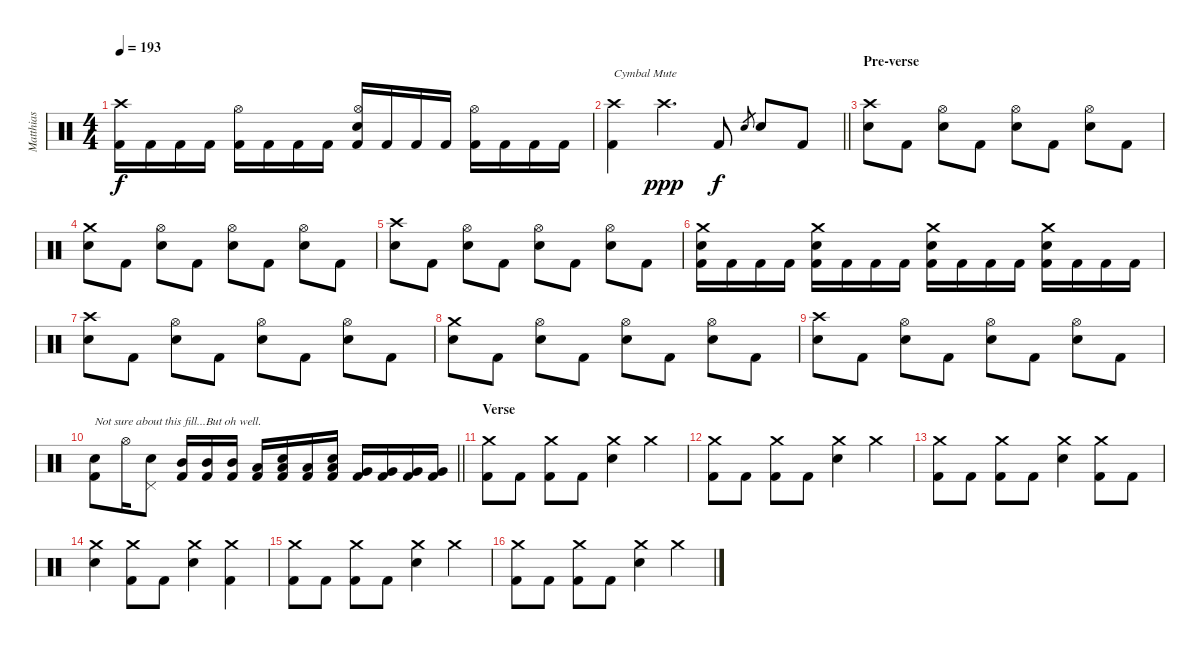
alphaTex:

\track ("Matthias" "Matthias") {instrument percussion}
\staff {score}
\articulation defaults
\ts (4 4)
\tempo 193
\clef neutral
\ks c
("Crash high (hit)" "Kick (hit) 2").16{dy f} "Kick (hit) 2".16 "Kick (hit) 2".16 "Kick (hit) 2".16 ("Hi-Hat (open)" "Kick (hit) 2").16 "Kick (hit) 2".16 "Kick (hit) 2".16 "Kick (hit) 2".16 ("Hi-Hat (open)" "Electric Snare (hit)" "Kick (hit) 2").16 "Kick (hit) 2".16 "Kick (hit) 2".16 "Kick (hit) 2".16 ("Hi-Hat (open)" "Kick (hit) 2").16 "Kick (hit) 2".16 "Kick (hit) 2".16 "Kick (hit) 2".16 |
\barLineRight lightlight
("Crash high (hit)" "Kick (hit) 2").4{txt "Cymbal Mute"} "Crash high (hit)".4{d dy ppp} "Kick (hit) 2".8{dy f} "Electric Snare (hit)".8{gr} "Electric Snare (hit)".8 "Kick (hit) 2".8 |
\section ("" "Pre-verse")
("Crash high (hit)" "Electric Snare (hit)").8 "Kick (hit) 2".8 ("Hi-Hat (open)" "Electric Snare (hit)").8 "Kick (hit) 2".8 ("Hi-Hat (open)" "Electric Snare (hit)").8 "Kick (hit) 2".8 ("Hi-Hat (open)" "Electric Snare (hit)").8 "Kick (hit) 2".8 |
("Crash medium (hit)" "Electric Snare (hit)").8 "Kick (hit) 2".8 ("Hi-Hat (open)" "Electric Snare (hit)").8 "Kick (hit) 2".8 ("Hi-Hat (open)" "Electric Snare (hit)").8 "Kick (hit) 2".8 ("Hi-Hat (open)" "Electric Snare (hit)").8 "Kick (hit) 2".8 |
("Crash high (hit)" "Electric Snare (hit)").8 "Kick (hit) 2".8 ("Hi-Hat (open)" "Electric Snare (hit)").8 "Kick (hit) 2".8 ("Hi-Hat (open)" "Electric Snare (hit)").8 "Kick (hit) 2".8 ("Hi-Hat (open)" "Electric Snare (hit)").8 "Kick (hit) 2".8 |
("Crash medium (hit)" "Electric Snare (hit)" "Kick (hit) 2").16 "Kick (hit) 2".16 "Kick (hit) 2".16 "Kick (hit) 2".16 ("Crash medium (hit)" "Electric Snare (hit)" "Kick (hit) 2").16 "Kick (hit) 2".16 "Kick (hit) 2".16 "Kick (hit) 2".16 ("Crash medium (hit)" "Electric Snare (hit)" "Kick (hit) 2").16 "Kick (hit) 2".16 "Kick (hit) 2".16 "Kick (hit) 2".16 ("Crash medium (hit)" "Electric Snare (hit)" "Kick (hit) 2").16 "Kick (hit) 2".16 "Kick (hit) 2".16 "Kick (hit) 2".16 |
("Crash high (hit)" "Electric Snare (hit)").8 "Kick (hit) 2".8 ("Hi-Hat (open)" "Electric Snare (hit)").8 "Kick (hit) 2".8 ("Hi-Hat (open)" "Electric Snare (hit)").8 "Kick (hit) 2".8 ("Hi-Hat (open)" "Electric Snare (hit)").8 "Kick (hit) 2".8 |
("Crash medium (hit)" "Electric Snare (hit)").8 "Kick (hit) 2".8 ("Hi-Hat (open)" "Electric Snare (hit)").8 "Kick (hit) 2".8 ("Hi-Hat (open)" "Electric Snare (hit)").8 "Kick (hit) 2".8 ("Hi-Hat (open)" "Electric Snare (hit)").8 "Kick (hit) 2".8 |
("Crash high (hit)" "Electric Snare (hit)").8 "Kick (hit) 2".8 ("Hi-Hat (open)" "Electric Snare (hit)").8 "Kick (hit) 2".8 ("Hi-Hat (open)" "Electric Snare (hit)").8 "Kick (hit) 2".8 ("Hi-Hat (open)" "Electric Snare (hit)").8 "Kick (hit) 2".8 |
\barLineRight lightlight
("Electric Snare (hit)" "Kick (hit) 2").8{txt "Not sure about this fill...But oh well."} "Hi-Hat (open)".16 ("Pedal Hi-Hat (hit)" "Electric Snare (hit)").8 ("Mid Tom (hit)" "Kick (hit) 2").16 ("Mid Tom (hit)" "Kick (hit) 2").16 ("Mid Tom (hit)" "Kick (hit) 2").16 ("Low Tom (hit)" "Kick (hit) 2").16 ("Low Tom (hit)" "Electric Snare (hit)" "Kick (hit) 2").16 ("Low Tom (hit)" "Kick (hit) 2").16 ("Low Tom (hit)" "Electric Snare (hit)" "Kick (hit) 2").16 ("Very Low Tom (hit)" "Kick (hit) 2").16 ("Very Low Tom (hit)" "Kick (hit) 2").16 ("Very Low Tom (hit)" "Kick (hit) 2").16 ("Very Low Tom (hit)" "Kick (hit) 2").16 |
\section ("" "Verse")
("Crash medium (hit)" "Kick (hit) 2").8 "Kick (hit) 2".8 ("Crash medium (hit)" "Kick (hit) 2").8 "Kick (hit) 2".8 ("Crash medium (hit)" "Electric Snare (hit)").4 "Crash medium (hit)".4 |
("Crash medium (hit)" "Kick (hit) 2").8 "Kick (hit) 2".8 ("Crash medium (hit)" "Kick (hit) 2").8 "Kick (hit) 2".8 ("Crash medium (hit)" "Electric Snare (hit)").4 "Crash medium (hit)".4 |
("Crash medium (hit)" "Kick (hit) 2").8 "Kick (hit) 2".8 ("Crash medium (hit)" "Kick (hit) 2").8 "Kick (hit) 2".8 ("Crash medium (hit)" "Electric Snare (hit)").4 ("Crash medium (hit)" "Kick (hit) 2").8 "Kick (hit) 2".8 |
("Crash medium (hit)" "Electric Snare (hit)").4 ("Crash medium (hit)" "Kick (hit) 2").8 "Kick (hit) 2".8 ("Crash medium (hit)" "Electric Snare (hit)").4 ("Crash medium (hit)" "Kick (hit) 2").4 |
("Crash medium (hit)" "Kick (hit) 2").8 "Kick (hit) 2".8 ("Crash medium (hit)" "Kick (hit) 2").8 "Kick (hit) 2".8 ("Crash medium (hit)" "Electric Snare (hit)").4 "Crash medium (hit)".4 |
("Crash medium (hit)" "Kick (hit) 2").8 "Kick (hit) 2".8 ("Crash medium (hit)" "Kick (hit) 2").8 "Kick (hit) 2".8 ("Crash medium (hit)" "Electric Snare (hit)").4 "Crash medium (hit)".4
